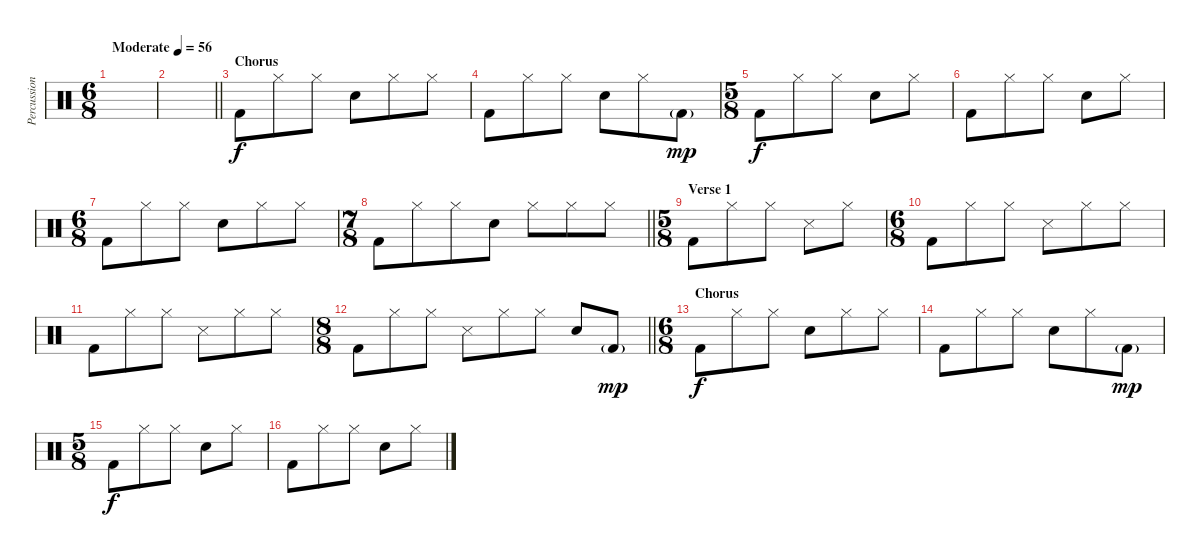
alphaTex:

\track ("Percussion" "Percussion") {instrument percussion}
\staff {score}
\articulation defaults
\ts (6 8)
\tempo (56 "Moderate")
\clef neutral
\ks c
|
\barLineRight lightlight
|
\section ("" "Chorus")
"Kick (hit) 2".8 "Hi-Hat (closed)".8 "Hi-Hat (closed)".8 "Snare (hit) 2".8 "Hi-Hat (closed)".8 "Hi-Hat (closed)".8 |
"Kick (hit) 2".8 "Hi-Hat (closed)".8 "Hi-Hat (closed)".8 "Snare (hit) 2".8 "Hi-Hat (closed)".8 "Kick (hit) 2"{g}.8{dy mp} |
\ts (5 8)
"Kick (hit) 2".8{dy f} "Hi-Hat (closed)".8 "Hi-Hat (closed)".8 "Snare (hit) 2".8 "Hi-Hat (closed)".8 |
"Kick (hit) 2".8 "Hi-Hat (closed)".8 "Hi-Hat (closed)".8 "Snare (hit) 2".8 "Hi-Hat (closed)".8 |
\ts (6 8)
"Kick (hit) 2".8 "Hi-Hat (closed)".8 "Hi-Hat (closed)".8 "Snare (hit) 2".8 "Hi-Hat (closed)".8 "Hi-Hat (closed)".8 |
\ts (7 8)
\barLineRight lightlight "Kick (hit) 2".8 "Hi-Hat (closed)".8 "Hi-Hat (closed)".8 "Snare (hit) 2".8 "Hi-Hat (closed)".8 "Hi-Hat (closed)".8 "Hi-Hat (closed)".8
|
\ts (5 8)
\section ("" "Verse 1")
"Kick (hit) 2".8 "Hi-Hat (closed)".8 "Hi-Hat (closed)".8 "Snare (side stick) 3".8 "Hi-Hat (closed)".8 |
\ts (6 8)
"Kick (hit) 2".8 "Hi-Hat (closed)".8 "Hi-Hat (closed)".8 "Snare (side stick) 3".8 "Hi-Hat (closed)".8 "Hi-Hat (closed)".8 |
"Kick (hit) 2".8 "Hi-Hat (closed)".8 "Hi-Hat (closed)".8 "Snare (side stick) 3".8 "Hi-Hat (closed)".8 "Hi-Hat (closed)".8 |
\ts (8 8)
\barLineRight lightlight "Kick (hit) 2".8 "Hi-Hat (closed)".8 "Hi-Hat (closed)".8 "Snare (side stick) 3".8 "Hi-Hat (closed)".8 "Hi-Hat (closed)".8 "Snare (hit) 2".8 "Kick (hit) 2"{g}.8{dy mp}
|
\ts (6 8)
\section ("" "Chorus")
"Kick (hit) 2".8{dy f} "Hi-Hat (closed)".8 "Hi-Hat (closed)".8 "Snare (hit) 2".8 "Hi-Hat (closed)".8 "Hi-Hat (closed)".8 |
"Kick (hit) 2".8 "Hi-Hat (closed)".8 "Hi-Hat (closed)".8 "Snare (hit) 2".8 "Hi-Hat (closed)".8 "Kick (hit) 2"{g}.8{dy mp} |
\ts (5 8)
"Kick (hit) 2".8{dy f} "Hi-Hat (closed)".8 "Hi-Hat (closed)".8 "Snare (hit) 2".8 "Hi-Hat (closed)".8 |
"Kick (hit) 2".8 "Hi-Hat (closed)".8 "Hi-Hat (closed)".8 "Snare (hit) 2".8 "Hi-Hat (closed)".8
